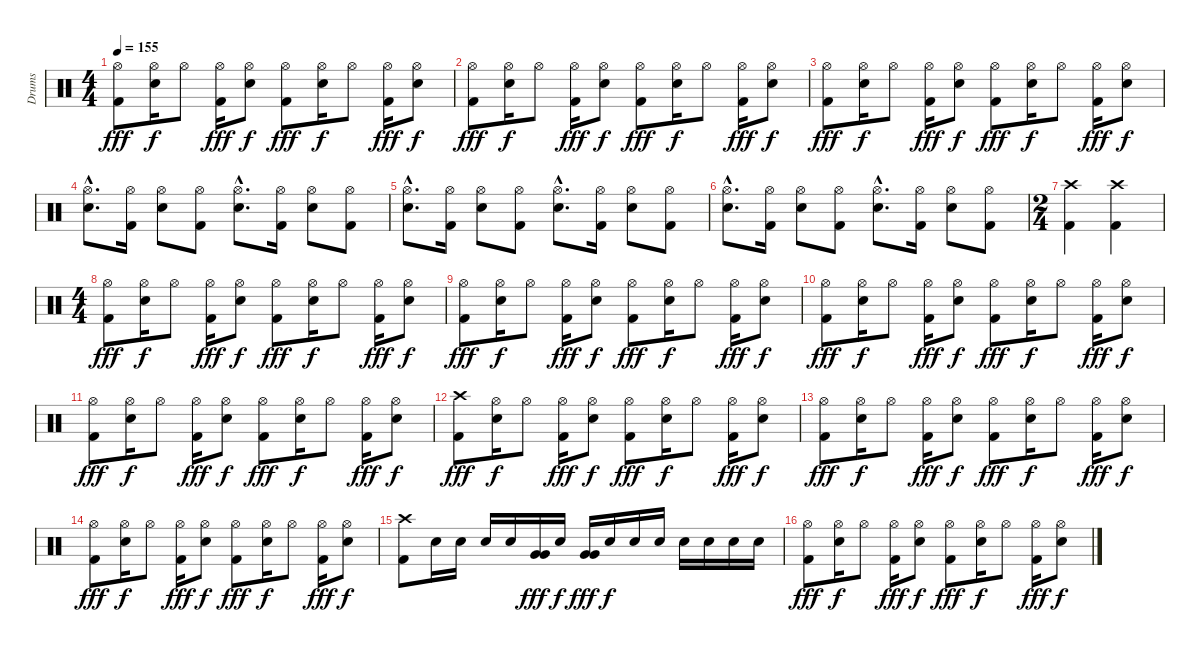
\track ("Drums" "Drums") {instrument percussion}
\staff {score}
\articulation defaults
\ts (4 4)
\tempo 155
\clef neutral
\ks c
("Kick (hit) 2" "Hi-Hat (open)").8{dy fff} ("Electric Snare (hit)" "Hi-Hat (open)").16{dy f} "Hi-Hat (open)".8 ("Kick (hit) 2" "Hi-Hat (open)").16{dy fff} ("Electric Snare (hit)" "Hi-Hat (open)").8{dy f} ("Kick (hit) 2" "Hi-Hat (open)").8{dy fff} ("Electric Snare (hit)" "Hi-Hat (open)").16{dy f} "Hi-Hat (open)".8 ("Kick (hit) 2" "Hi-Hat (open)").16{dy fff} ("Electric Snare (hit)" "Hi-Hat (open)").8{dy f} |
("Kick (hit) 2" "Hi-Hat (open)").8{dy fff} ("Electric Snare (hit)" "Hi-Hat (open)").16{dy f} "Hi-Hat (open)".8 ("Kick (hit) 2" "Hi-Hat (open)").16{dy fff} ("Electric Snare (hit)" "Hi-Hat (open)").8{dy f} ("Kick (hit) 2" "Hi-Hat (open)").8{dy fff} ("Electric Snare (hit)" "Hi-Hat (open)").16{dy f} "Hi-Hat (open)".8 ("Kick (hit) 2" "Hi-Hat (open)").16{dy fff} ("Electric Snare (hit)" "Hi-Hat (open)").8{dy f} |
("Kick (hit) 2" "Hi-Hat (open)").8{dy fff} ("Electric Snare (hit)" "Hi-Hat (open)").16{dy f} "Hi-Hat (open)".8 ("Kick (hit) 2" "Hi-Hat (open)").16{dy fff} ("Electric Snare (hit)" "Hi-Hat (open)").8{dy f} ("Kick (hit) 2" "Hi-Hat (open)").8{dy fff} ("Electric Snare (hit)" "Hi-Hat (open)").16{dy f} "Hi-Hat (open)".8 ("Kick (hit) 2" "Hi-Hat (open)").16{dy fff} ("Electric Snare (hit)" "Hi-Hat (open)").8{dy f} |
("Electric Snare (hit)"{hac} "Hi-Hat (open)"{hac}).8{d} ("Kick (hit) 2" "Hi-Hat (open)").16 ("Electric Snare (hit)" "Hi-Hat (open)").8 ("Kick (hit) 2" "Hi-Hat (open)").8 ("Electric Snare (hit)"{hac} "Hi-Hat (open)"{hac}).8{d} ("Kick (hit) 2" "Hi-Hat (open)").16 ("Electric Snare (hit)" "Hi-Hat (open)").8 ("Kick (hit) 2" "Hi-Hat (open)").8 |
("Electric Snare (hit)"{hac} "Hi-Hat (open)"{hac}).8{d} ("Kick (hit) 2" "Hi-Hat (open)").16 ("Electric Snare (hit)" "Hi-Hat (open)").8 ("Kick (hit) 2" "Hi-Hat (open)").8 ("Electric Snare (hit)"{hac} "Hi-Hat (open)"{hac}).8{d} ("Kick (hit) 2" "Hi-Hat (open)").16 ("Electric Snare (hit)" "Hi-Hat (open)").8 ("Kick (hit) 2" "Hi-Hat (open)").8 |
("Electric Snare (hit)"{hac} "Hi-Hat (open)"{hac}).8{d} ("Kick (hit) 2" "Hi-Hat (open)").16 ("Electric Snare (hit)" "Hi-Hat (open)").8 ("Kick (hit) 2" "Hi-Hat (open)").8 ("Electric Snare (hit)"{hac} "Hi-Hat (open)"{hac}).8{d} ("Kick (hit) 2" "Hi-Hat (open)").16 ("Electric Snare (hit)" "Hi-Hat (open)").8 ("Kick (hit) 2" "Hi-Hat (open)").8 |
\ts (2 4)
("Kick (hit) 2" "Crash high (hit)").4 ("Kick (hit) 2" "Crash high (hit)").4 |
\ts (4 4)
("Kick (hit) 2" "Hi-Hat (open)").8{dy fff} ("Electric Snare (hit)" "Hi-Hat (open)").16{dy f} "Hi-Hat (open)".8 ("Kick (hit) 2" "Hi-Hat (open)").16{dy fff} ("Electric Snare (hit)" "Hi-Hat (open)").8{dy f} ("Kick (hit) 2" "Hi-Hat (open)").8{dy fff} ("Electric Snare (hit)" "Hi-Hat (open)").16{dy f} "Hi-Hat (open)".8 ("Kick (hit) 2" "Hi-Hat (open)").16{dy fff} ("Electric Snare (hit)" "Hi-Hat (open)").8{dy f} |
("Kick (hit) 2" "Hi-Hat (open)").8{dy fff} ("Electric Snare (hit)" "Hi-Hat (open)").16{dy f} "Hi-Hat (open)".8 ("Kick (hit) 2" "Hi-Hat (open)").16{dy fff} ("Electric Snare (hit)" "Hi-Hat (open)").8{dy f} ("Kick (hit) 2" "Hi-Hat (open)").8{dy fff} ("Electric Snare (hit)" "Hi-Hat (open)").16{dy f} "Hi-Hat (open)".8 ("Kick (hit) 2" "Hi-Hat (open)").16{dy fff} ("Electric Snare (hit)" "Hi-Hat (open)").8{dy f} |
("Kick (hit) 2" "Hi-Hat (open)").8{dy fff} ("Electric Snare (hit)" "Hi-Hat (open)").16{dy f} "Hi-Hat (open)".8 ("Kick (hit) 2" "Hi-Hat (open)").16{dy fff} ("Electric Snare (hit)" "Hi-Hat (open)").8{dy f} ("Kick (hit) 2" "Hi-Hat (open)").8{dy fff} ("Electric Snare (hit)" "Hi-Hat (open)").16{dy f} "Hi-Hat (open)".8 ("Kick (hit) 2" "Hi-Hat (open)").16{dy fff} ("Electric Snare (hit)" "Hi-Hat (open)").8{dy f} |
("Kick (hit) 2" "Hi-Hat (open)").8{dy fff} ("Electric Snare (hit)" "Hi-Hat (open)").16{dy f} "Hi-Hat (open)".8 ("Kick (hit) 2" "Hi-Hat (open)").16{dy fff} ("Electric Snare (hit)" "Hi-Hat (open)").8{dy f} ("Kick (hit) 2" "Hi-Hat (open)").8{dy fff} ("Electric Snare (hit)" "Hi-Hat (open)").16{dy f} "Hi-Hat (open)".8 ("Kick (hit) 2" "Hi-Hat (open)").16{dy fff} ("Electric Snare (hit)" "Hi-Hat (open)").8{dy f} |
("Kick (hit) 2" "Crash high (hit)").8{dy fff} ("Electric Snare (hit)" "Hi-Hat (open)").16{dy f} "Hi-Hat (open)".8 ("Kick (hit) 2" "Hi-Hat (open)").16{dy fff} ("Electric Snare (hit)" "Hi-Hat (open)").8{dy f} ("Kick (hit) 2" "Hi-Hat (open)").8{dy fff} ("Electric Snare (hit)" "Hi-Hat (open)").16{dy f} "Hi-Hat (open)".8 ("Kick (hit) 2" "Hi-Hat (open)").16{dy fff} ("Electric Snare (hit)" "Hi-Hat (open)").8{dy f} |
("Kick (hit) 2" "Hi-Hat (open)").8{dy fff} ("Electric Snare (hit)" "Hi-Hat (open)").16{dy f} "Hi-Hat (open)".8 ("Kick (hit) 2" "Hi-Hat (open)").16{dy fff} ("Electric Snare (hit)" "Hi-Hat (open)").8{dy f} ("Kick (hit) 2" "Hi-Hat (open)").8{dy fff} ("Electric Snare (hit)" "Hi-Hat (open)").16{dy f} "Hi-Hat (open)".8 ("Kick (hit) 2" "Hi-Hat (open)").16{dy fff} ("Electric Snare (hit)" "Hi-Hat (open)").8{dy f} |
("Kick (hit) 2" "Hi-Hat (open)").8{dy fff} ("Electric Snare (hit)" "Hi-Hat (open)").16{dy f} "Hi-Hat (open)".8 ("Kick (hit) 2" "Hi-Hat (open)").16{dy fff} ("Electric Snare (hit)" "Hi-Hat (open)").8{dy f} ("Kick (hit) 2" "Hi-Hat (open)").8{dy fff} ("Electric Snare (hit)" "Hi-Hat (open)").16{dy f} "Hi-Hat (open)".8 ("Kick (hit) 2" "Hi-Hat (open)").16{dy fff} ("Electric Snare (hit)" "Hi-Hat (open)").8{dy f} |
("Kick (hit) 2" "Crash high (hit)").8 "Electric Snare (hit)".16 "Electric Snare (hit)".16 "Electric Snare (hit)".16 "Electric Snare (hit)".16 ("Very Low Tom (hit)" "Very Low Tom (hit)").16{dy fff} "Electric Snare (hit)".16{dy f} ("Very Low Tom (hit)" "Very Low Tom (hit)").16{dy fff} "Electric Snare (hit)".16{dy f} "Electric Snare (hit)".16 "Electric Snare (hit)".16 "Electric Snare (hit)".16 "Electric Snare (hit)".16 "Electric Snare (hit)".16 "Electric Snare (hit)".16 |
("Kick (hit) 2" "Hi-Hat (open)").8{dy fff} ("Electric Snare (hit)" "Hi-Hat (open)").16{dy f} "Hi-Hat (open)".8 ("Kick (hit) 2" "Hi-Hat (open)").16{dy fff} ("Electric Snare (hit)" "Hi-Hat (open)").8{dy f} ("Kick (hit) 2" "Hi-Hat (open)").8{dy fff} ("Electric Snare (hit)" "Hi-Hat (open)").16{dy f} "Hi-Hat (open)".8 ("Kick (hit) 2" "Hi-Hat (open)").16{dy fff} ("Electric Snare (hit)" "Hi-Hat (open)").8{dy f}
